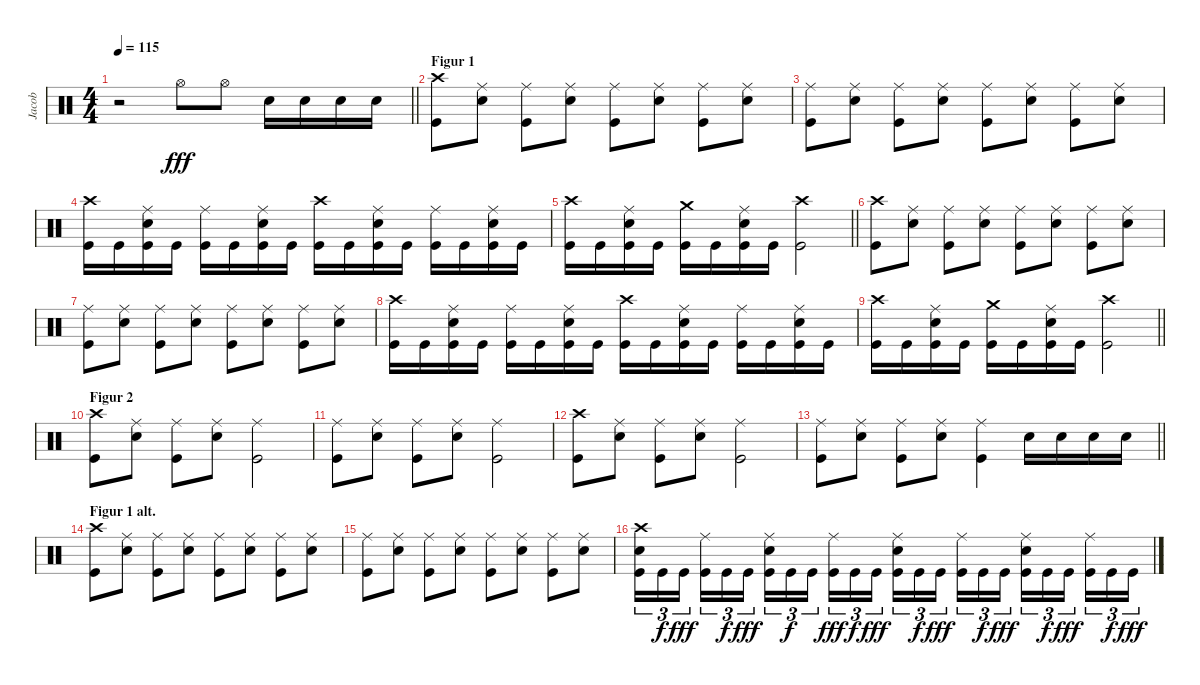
\track ("Jacob" "Jacob") {instrument percussion}
\staff {score}
\articulation defaults
\ts (4 4)
\tempo 115
\clef neutral
\barLineRight lightlight
\ks c
r.2{dy fff} "Hi-Hat (open)".8 "Hi-Hat (open)".8 "Electric Snare (hit)".16 "Electric Snare (hit)".16 "Electric Snare (hit)".16 "Electric Snare (hit)".16 |
\section ("" "Figur 1")
("Kick (hit)" "Crash high (hit)").8 ("Electric Snare (hit)" "Ride (middle)").8 ("Kick (hit)" "Ride (middle)").8 ("Electric Snare (hit)" "Ride (middle)").8 ("Kick (hit)" "Ride (middle)").8 ("Electric Snare (hit)" "Ride (middle)").8 ("Kick (hit)" "Ride (middle)").8 ("Electric Snare (hit)" "Ride (middle)").8 |
("Kick (hit)" "Ride (middle)").8 ("Electric Snare (hit)" "Ride (middle)").8 ("Kick (hit)" "Ride (middle)").8 ("Electric Snare (hit)" "Ride (middle)").8 ("Kick (hit)" "Ride (middle)").8 ("Electric Snare (hit)" "Ride (middle)").8 ("Kick (hit)" "Ride (middle)").8 ("Electric Snare (hit)" "Ride (middle)").8 |
("Kick (hit)" "Crash high (hit)").16 "Kick (hit)".16 ("Kick (hit)" "Electric Snare (hit)" "Ride (middle)").16 "Kick (hit)".16 ("Kick (hit)" "Ride (middle)").16 "Kick (hit)".16 ("Kick (hit)" "Electric Snare (hit)" "Ride (middle)").16 "Kick (hit)".16 ("Kick (hit)" "Crash high (hit)").16 "Kick (hit)".16 ("Kick (hit)" "Electric Snare (hit)" "Ride (middle)").16 "Kick (hit)".16 ("Kick (hit)" "Ride (middle)").16 "Kick (hit)".16 ("Kick (hit)" "Electric Snare (hit)" "Ride (middle)").16 "Kick (hit)".16 |
\barLineRight lightlight
("Kick (hit)" "Crash high (hit)").16 "Kick (hit)".16 ("Kick (hit)" "Electric Snare (hit)" "Ride (middle)").16 "Kick (hit)".16 ("Kick (hit)" "Crash medium (hit)").16 "Kick (hit)".16 ("Kick (hit)" "Electric Snare (hit)" "Ride (middle)").16 "Kick (hit)".16 ("Kick (hit)" "Crash high (hit)").2 |
("Kick (hit)" "Crash high (hit)").8 ("Electric Snare (hit)" "Ride (middle)").8 ("Kick (hit)" "Ride (middle)").8 ("Electric Snare (hit)" "Ride (middle)").8 ("Kick (hit)" "Ride (middle)").8 ("Electric Snare (hit)" "Ride (middle)").8 ("Kick (hit)" "Ride (middle)").8 ("Electric Snare (hit)" "Ride (middle)").8 |
("Kick (hit)" "Ride (middle)").8 ("Electric Snare (hit)" "Ride (middle)").8 ("Kick (hit)" "Ride (middle)").8 ("Electric Snare (hit)" "Ride (middle)").8 ("Kick (hit)" "Ride (middle)").8 ("Electric Snare (hit)" "Ride (middle)").8 ("Kick (hit)" "Ride (middle)").8 ("Electric Snare (hit)" "Ride (middle)").8 |
("Kick (hit)" "Crash high (hit)").16 "Kick (hit)".16 ("Kick (hit)" "Electric Snare (hit)" "Ride (middle)").16 "Kick (hit)".16 ("Kick (hit)" "Ride (middle)").16 "Kick (hit)".16 ("Kick (hit)" "Electric Snare (hit)" "Ride (middle)").16 "Kick (hit)".16 ("Kick (hit)" "Crash high (hit)").16 "Kick (hit)".16 ("Kick (hit)" "Electric Snare (hit)" "Ride (middle)").16 "Kick (hit)".16 ("Kick (hit)" "Ride (middle)").16 "Kick (hit)".16 ("Kick (hit)" "Electric Snare (hit)" "Ride (middle)").16 "Kick (hit)".16 |
\barLineRight lightlight
("Kick (hit)" "Crash high (hit)").16 "Kick (hit)".16 ("Kick (hit)" "Electric Snare (hit)" "Ride (middle)").16 "Kick (hit)".16 ("Kick (hit)" "Crash medium (hit)").16 "Kick (hit)".16 ("Kick (hit)" "Electric Snare (hit)" "Ride (middle)").16 "Kick (hit)".16 ("Kick (hit)" "Crash high (hit)").2 |
\section ("" "Figur 2")
("Kick (hit)" "Crash high (hit)").8 ("Electric Snare (hit)" "Ride (middle)").8 ("Kick (hit)" "Ride (middle)").8 ("Electric Snare (hit)" "Ride (middle)").8 ("Kick (hit)" "Ride (middle)").2 |
("Kick (hit)" "Ride (middle)").8 ("Electric Snare (hit)" "Ride (middle)").8 ("Kick (hit)" "Ride (middle)").8 ("Electric Snare (hit)" "Ride (middle)").8 ("Kick (hit)" "Ride (middle)").2 |
("Kick (hit)" "Crash high (hit)").8 ("Electric Snare (hit)" "Ride (middle)").8 ("Kick (hit)" "Ride (middle)").8 ("Electric Snare (hit)" "Ride (middle)").8 ("Kick (hit)" "Ride (middle)").2 |
\barLineRight lightlight
("Kick (hit)" "Ride (middle)").8 ("Electric Snare (hit)" "Ride (middle)").8 ("Kick (hit)" "Ride (middle)").8 ("Electric Snare (hit)" "Ride (middle)").8 ("Kick (hit)" "Ride (middle)").4 "Electric Snare (hit)".16 "Electric Snare (hit)".16 "Electric Snare (hit)".16 "Electric Snare (hit)".16 |
\section ("" "Figur 1 alt.")
("Kick (hit)" "Crash high (hit)").8 ("Electric Snare (hit)" "Ride (middle)").8 ("Kick (hit)" "Ride (middle)").8 ("Electric Snare (hit)" "Ride (middle)").8 ("Kick (hit)" "Ride (middle)").8 ("Electric Snare (hit)" "Ride (middle)").8 ("Kick (hit)" "Ride (middle)").8 ("Electric Snare (hit)" "Ride (middle)").8 |
("Kick (hit)" "Ride (middle)").8 ("Electric Snare (hit)" "Ride (middle)").8 ("Kick (hit)" "Ride (middle)").8 ("Electric Snare (hit)" "Ride (middle)").8 ("Kick (hit)" "Ride (middle)").8 ("Electric Snare (hit)" "Ride (middle)").8 ("Kick (hit)" "Ride (middle)").8 ("Electric Snare (hit)" "Ride (middle)").8 |
("Kick (hit)" "Electric Snare (hit)" "Crash high (hit)").16{tu (3 2)} "Kick (hit)".16{tu (3 2) dy f} "Kick (hit)".16{tu (3 2) dy fff} ("Kick (hit)" "Ride (middle)").16{tu (3 2)} "Kick (hit)".16{tu (3 2) dy f} "Kick (hit)".16{tu (3 2) dy fff} ("Kick (hit)" "Electric Snare (hit)" "Ride (middle)").16{tu (3 2)} "Kick (hit)".16{tu (3 2) dy f} "Kick (hit)".16{tu (3 2)} ("Kick (hit)" "Ride (middle)").16{tu (3 2) dy fff} "Kick (hit)".16{tu (3 2) dy f} "Kick (hit)".16{tu (3 2) dy fff} ("Kick (hit)" "Electric Snare (hit)" "Ride (middle)").16{tu (3 2)} "Kick (hit)".16{tu (3 2) dy f} "Kick (hit)".16{tu (3 2) dy fff} ("Kick (hit)" "Ride (middle)").16{tu (3 2)} "Kick (hit)".16{tu (3 2) dy f} "Kick (hit)".16{tu (3 2) dy fff} ("Kick (hit)" "Electric Snare (hit)" "Ride (middle)").16{tu (3 2)} "Kick (hit)".16{tu (3 2) dy f} "Kick (hit)".16{tu (3 2) dy fff} ("Kick (hit)" "Ride (middle)").16{tu (3 2)} "Kick (hit)".16{tu (3 2) dy f} "Kick (hit)".16{tu (3 2) dy fff}
